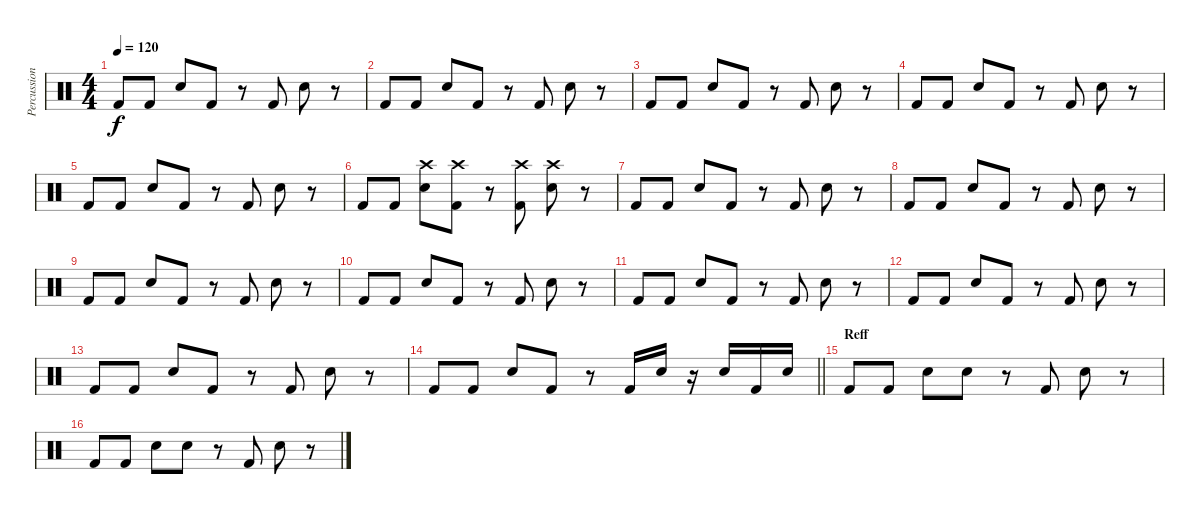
\track ("Percussion" "Percussion") {instrument percussion}
\staff {score}
\articulation defaults
\ts (4 4)
\tempo 120
\clef neutral
\ks c "Kick (hit) 2".8{dy f} "Kick (hit) 2".8 "Snare (hit) 2".8 "Kick (hit) 2".8
r.8 "Kick (hit) 2".8 "Snare (hit) 2".8 r.8 |
"Kick (hit) 2".8 "Kick (hit) 2".8 "Snare (hit) 2".8 "Kick (hit) 2".8 r.8 "Kick (hit) 2".8 "Snare (hit) 2".8 r.8 |
"Kick (hit) 2".8 "Kick (hit) 2".8 "Snare (hit) 2".8 "Kick (hit) 2".8 r.8 "Kick (hit) 2".8 "Snare (hit) 2".8 r.8 |
"Kick (hit) 2".8 "Kick (hit) 2".8 "Snare (hit) 2".8 "Kick (hit) 2".8 r.8 "Kick (hit) 2".8 "Snare (hit) 2".8 r.8 |
"Kick (hit) 2".8 "Kick (hit) 2".8 "Snare (hit) 2".8 "Kick (hit) 2".8 r.8 "Kick (hit) 2".8 "Snare (hit) 2".8 r.8 |
"Kick (hit) 2".8 "Kick (hit) 2".8 ("Snare (hit) 2" "Crash high (hit)").8 ("Kick (hit) 2" "Crash high (hit)").8 r.8 ("Kick (hit) 2" "Crash high (hit)").8 ("Snare (hit) 2" "Crash high (hit)").8 r.8 |
"Kick (hit) 2".8 "Kick (hit) 2".8 "Snare (hit) 2".8 "Kick (hit) 2".8 r.8 "Kick (hit) 2".8 "Snare (hit) 2".8 r.8 |
"Kick (hit) 2".8 "Kick (hit) 2".8 "Snare (hit) 2".8 "Kick (hit) 2".8 r.8 "Kick (hit) 2".8 "Snare (hit) 2".8 r.8 |
"Kick (hit) 2".8 "Kick (hit) 2".8 "Snare (hit) 2".8 "Kick (hit) 2".8 r.8 "Kick (hit) 2".8 "Snare (hit) 2".8 r.8 |
"Kick (hit) 2".8 "Kick (hit) 2".8 "Snare (hit) 2".8 "Kick (hit) 2".8 r.8 "Kick (hit) 2".8 "Snare (hit) 2".8 r.8 |
"Kick (hit) 2".8 "Kick (hit) 2".8 "Snare (hit) 2".8 "Kick (hit) 2".8 r.8 "Kick (hit) 2".8 "Snare (hit) 2".8 r.8 |
"Kick (hit) 2".8 "Kick (hit) 2".8 "Snare (hit) 2".8 "Kick (hit) 2".8 r.8 "Kick (hit) 2".8 "Snare (hit) 2".8 r.8 |
"Kick (hit) 2".8 "Kick (hit) 2".8 "Snare (hit) 2".8 "Kick (hit) 2".8 r.8 "Kick (hit) 2".8 "Snare (hit) 2".8 r.8 |
\barLineRight lightlight "Kick (hit) 2".8 "Kick (hit) 2".8 "Snare (hit) 2".8 "Kick (hit) 2".8
r.8 "Kick (hit) 2".16 "Snare (hit) 2".16 r.16 "Snare (hit) 2".16 "Kick (hit) 2".16 "Snare (hit) 2".16 |
\section ("" "Reff")
"Kick (hit) 2".8 "Kick (hit) 2".8 "Snare (hit) 2".8 "Snare (hit) 2".8 r.8 "Kick (hit) 2".8 "Snare (hit) 2".8 r.8 |
"Kick (hit) 2".8 "Kick (hit) 2".8 "Snare (hit) 2".8 "Snare (hit) 2".8 r.8 "Kick (hit) 2".8 "Snare (hit) 2".8 r.8
